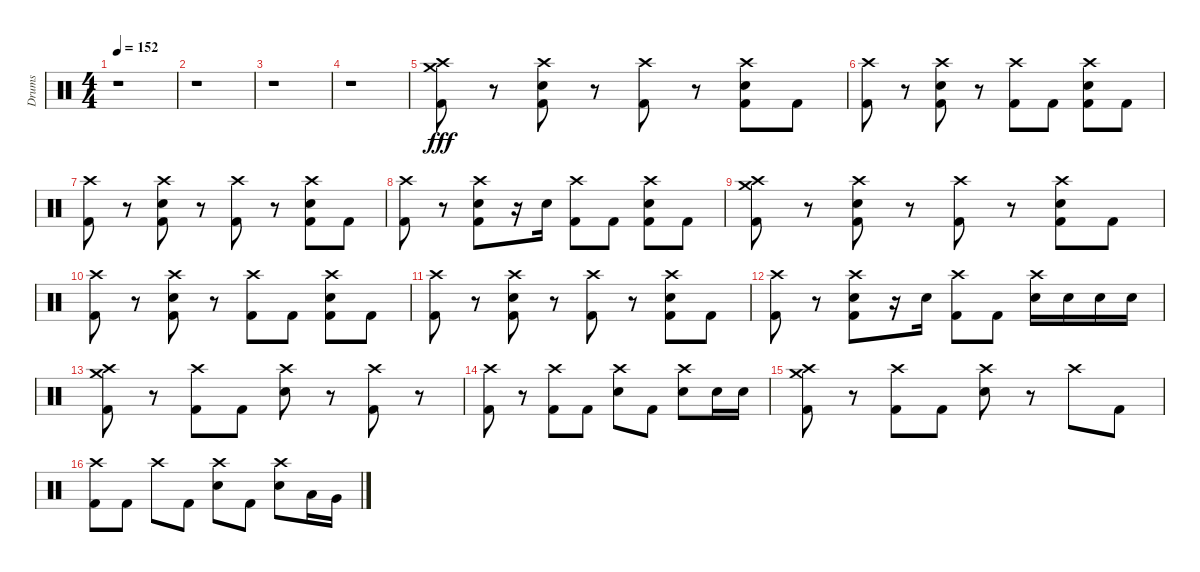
\track ("Drums" "Drums") {instrument percussion}
\staff {score}
\articulation defaults
\ts (4 4)
\tempo 152
\clef neutral
\ks c
r.1{dy fff} |
r.1 |
r.1 |
r.1 |
("Crash medium (hit)" "Crash high (hit)" "Kick (hit) 2").8 r.8 ("Crash high (hit)" "Snare (hit) 2" "Kick (hit) 2").8 r.8 ("Crash high (hit)" "Kick (hit) 2").8 r.8 ("Crash high (hit)" "Snare (hit) 2" "Kick (hit) 2").8 "Kick (hit) 2".8 |
("Crash high (hit)" "Kick (hit) 2").8 r.8 ("Crash high (hit)" "Snare (hit) 2" "Kick (hit) 2").8 r.8 ("Crash high (hit)" "Kick (hit) 2").8 "Kick (hit) 2".8 ("Crash high (hit)" "Snare (hit) 2" "Kick (hit) 2").8 "Kick (hit) 2".8 |
("Crash high (hit)" "Kick (hit) 2").8 r.8 ("Crash high (hit)" "Snare (hit) 2" "Kick (hit) 2").8 r.8 ("Crash high (hit)" "Kick (hit) 2").8 r.8 ("Crash high (hit)" "Snare (hit) 2" "Kick (hit) 2").8 "Kick (hit) 2".8 |
("Crash high (hit)" "Kick (hit) 2").8 r.8 ("Crash high (hit)" "Snare (hit) 2" "Kick (hit) 2").8 r.16 "Snare (hit) 2".16 ("Crash high (hit)" "Kick (hit) 2").8 "Kick (hit) 2".8 ("Crash high (hit)" "Snare (hit) 2" "Kick (hit) 2").8 "Kick (hit) 2".8 |
("Crash medium (hit)" "Crash high (hit)" "Kick (hit) 2").8 r.8 ("Crash high (hit)" "Snare (hit) 2" "Kick (hit) 2").8 r.8 ("Crash high (hit)" "Kick (hit) 2").8 r.8 ("Crash high (hit)" "Snare (hit) 2" "Kick (hit) 2").8 "Kick (hit) 2".8 |
("Crash high (hit)" "Kick (hit) 2").8 r.8 ("Crash high (hit)" "Snare (hit) 2" "Kick (hit) 2").8 r.8 ("Crash high (hit)" "Kick (hit) 2").8 "Kick (hit) 2".8 ("Crash high (hit)" "Snare (hit) 2" "Kick (hit) 2").8 "Kick (hit) 2".8 |
("Crash high (hit)" "Kick (hit) 2").8 r.8 ("Crash high (hit)" "Snare (hit) 2" "Kick (hit) 2").8 r.8 ("Crash high (hit)" "Kick (hit) 2").8 r.8 ("Crash high (hit)" "Snare (hit) 2" "Kick (hit) 2").8 "Kick (hit) 2".8 |
("Crash high (hit)" "Kick (hit) 2").8 r.8 ("Crash high (hit)" "Snare (hit) 2" "Kick (hit) 2").8 r.16 "Snare (hit) 2".16 ("Crash high (hit)" "Kick (hit) 2").8 "Kick (hit) 2".8 ("Crash high (hit)" "Snare (hit) 2").16 "Snare (hit) 2".16 "Snare (hit) 2".16 "Snare (hit) 2".16 |
("Crash medium (hit)" "Crash high (hit)" "Kick (hit) 2").8 r.8 ("Crash high (hit)" "Kick (hit) 2").8 "Kick (hit) 2".8 ("Crash high (hit)" "Snare (hit) 2").8 r.8 ("Crash high (hit)" "Kick (hit) 2").8 r.8 |
("Crash high (hit)" "Kick (hit) 2").8 r.8 ("Crash high (hit)" "Kick (hit) 2").8 "Kick (hit) 2".8 ("Crash high (hit)" "Snare (hit) 2").8 "Kick (hit) 2".8 ("Crash high (hit)" "Snare (hit) 2").8 "Snare (hit) 2".16 "Snare (hit) 2".16 |
("Crash medium (hit)" "Crash high (hit)" "Kick (hit) 2").8 r.8 ("Crash high (hit)" "Kick (hit) 2").8 "Kick (hit) 2".8 ("Crash high (hit)" "Snare (hit) 2").8 r.8 "Crash high (hit)".8 "Kick (hit) 2".8 |
("Crash high (hit)" "Kick (hit) 2").8 "Kick (hit) 2".8 "Crash high (hit)".8 "Kick (hit) 2".8 ("Crash high (hit)" "Snare (hit) 2").8 "Kick (hit) 2".8 ("Crash high (hit)" "Snare (hit) 2").8 "Low Tom (hit)".16 "Very Low Tom (hit)".16
